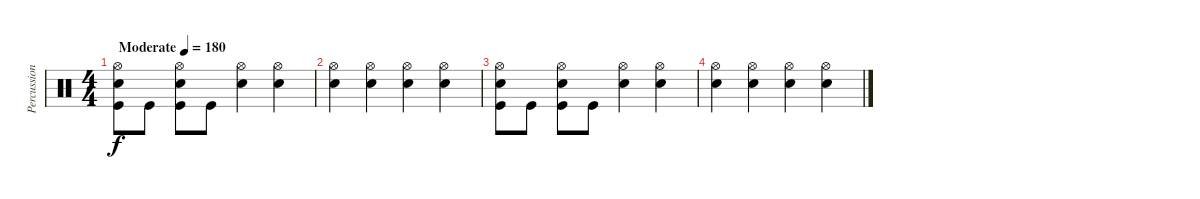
\track ("Percussion" "Percussion") {instrument percussion}
\staff {score}
\articulation defaults
\ts (4 4)
\tempo (180 "Moderate")
\clef neutral
\ks c
("Hi-Hat (open)" "Snare (hit) 2" "Kick (hit)").8{dy f} "Kick (hit)".8 ("Hi-Hat (open)" "Snare (hit) 2" "Kick (hit)").8 "Kick (hit)".8 ("Hi-Hat (open)" "Snare (hit) 2").4 ("Hi-Hat (open)" "Snare (hit) 2").4 |
("Hi-Hat (open)" "Snare (hit) 2").4 ("Hi-Hat (open)" "Snare (hit) 2").4 ("Hi-Hat (open)" "Snare (hit) 2").4 ("Hi-Hat (open)" "Snare (hit) 2").4 |
("Hi-Hat (open)" "Snare (hit) 2" "Kick (hit)").8 "Kick (hit)".8 ("Hi-Hat (open)" "Snare (hit) 2" "Kick (hit)").8 "Kick (hit)".8 ("Hi-Hat (open)" "Snare (hit) 2").4 ("Hi-Hat (open)" "Snare (hit) 2").4 |
("Hi-Hat (open)" "Snare (hit) 2").4 ("Hi-Hat (open)" "Snare (hit) 2").4 ("Hi-Hat (open)" "Snare (hit) 2").4 ("Hi-Hat (open)" "Snare (hit) 2").4
